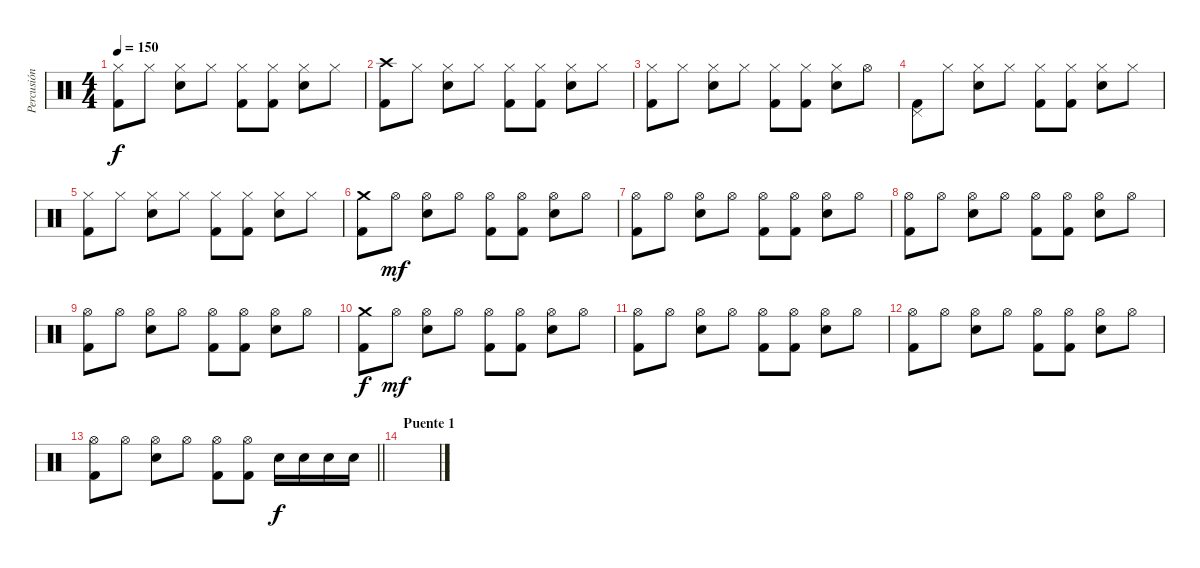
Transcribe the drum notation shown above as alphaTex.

\track ("Percusión" "Percusión") {instrument percussion}
\staff {score}
\articulation defaults
\ts (4 4)
\tempo 150
\clef neutral
\ks c
("Hi-Hat (closed)" "Kick (hit) 2").8{dy f} "Hi-Hat (closed)".8 ("Hi-Hat (closed)" "Electric Snare (hit)").8 "Hi-Hat (closed)".8 ("Hi-Hat (closed)" "Kick (hit) 2").8 ("Hi-Hat (closed)" "Kick (hit) 2").8 ("Hi-Hat (closed)" "Electric Snare (hit)").8 "Hi-Hat (closed)".8 |
("Crash high (hit)" "Kick (hit) 2").8 "Hi-Hat (closed)".8 ("Hi-Hat (closed)" "Electric Snare (hit)").8 "Hi-Hat (closed)".8 ("Hi-Hat (closed)" "Kick (hit) 2").8 ("Hi-Hat (closed)" "Kick (hit) 2").8 ("Hi-Hat (closed)" "Electric Snare (hit)").8 "Hi-Hat (closed)".8 |
("Hi-Hat (closed)" "Kick (hit) 2").8 "Hi-Hat (closed)".8 ("Hi-Hat (closed)" "Electric Snare (hit)").8 "Hi-Hat (closed)".8 ("Hi-Hat (closed)" "Kick (hit) 2").8 ("Hi-Hat (closed)" "Kick (hit) 2").8 ("Hi-Hat (closed)" "Electric Snare (hit)").8 "Hi-Hat (open)".8 |
("Pedal Hi-Hat (hit)" "Kick (hit) 2").8 "Hi-Hat (closed)".8 ("Hi-Hat (closed)" "Electric Snare (hit)").8 "Hi-Hat (closed)".8 ("Hi-Hat (closed)" "Kick (hit) 2").8 ("Hi-Hat (closed)" "Kick (hit) 2").8 ("Hi-Hat (closed)" "Electric Snare (hit)").8 "Hi-Hat (closed)".8 |
("Hi-Hat (closed)" "Kick (hit) 2").8 "Hi-Hat (closed)".8 ("Hi-Hat (closed)" "Electric Snare (hit)").8 "Hi-Hat (closed)".8 ("Hi-Hat (closed)" "Kick (hit) 2").8 ("Hi-Hat (closed)" "Kick (hit) 2").8 ("Hi-Hat (closed)" "Electric Snare (hit)").8 "Hi-Hat (closed)".8 |
("Crash medium (hit)" "Kick (hit) 2").8 "Hi-Hat (open)".8{dy mf} ("Hi-Hat (open)" "Electric Snare (hit)").8 "Hi-Hat (open)".8 ("Hi-Hat (open)" "Kick (hit) 2").8 ("Hi-Hat (open)" "Kick (hit) 2").8 ("Hi-Hat (open)" "Electric Snare (hit)").8 "Hi-Hat (open)".8 |
("Hi-Hat (open)" "Kick (hit) 2").8 "Hi-Hat (open)".8 ("Hi-Hat (open)" "Electric Snare (hit)").8 "Hi-Hat (open)".8 ("Hi-Hat (open)" "Kick (hit) 2").8 ("Hi-Hat (open)" "Kick (hit) 2").8 ("Hi-Hat (open)" "Electric Snare (hit)").8 "Hi-Hat (open)".8 |
("Hi-Hat (open)" "Kick (hit) 2").8 "Hi-Hat (open)".8 ("Hi-Hat (open)" "Electric Snare (hit)").8 "Hi-Hat (open)".8 ("Hi-Hat (open)" "Kick (hit) 2").8 ("Hi-Hat (open)" "Kick (hit) 2").8 ("Hi-Hat (open)" "Electric Snare (hit)").8 "Hi-Hat (open)".8 |
("Hi-Hat (open)" "Kick (hit) 2").8 "Hi-Hat (open)".8 ("Hi-Hat (open)" "Electric Snare (hit)").8 "Hi-Hat (open)".8 ("Hi-Hat (open)" "Kick (hit) 2").8 ("Hi-Hat (open)" "Kick (hit) 2").8 ("Hi-Hat (open)" "Electric Snare (hit)").8 "Hi-Hat (open)".8 |
("Crash medium (hit)" "Kick (hit) 2").8{dy f} "Hi-Hat (open)".8{dy mf} ("Hi-Hat (open)" "Electric Snare (hit)").8 "Hi-Hat (open)".8 ("Hi-Hat (open)" "Kick (hit) 2").8 ("Hi-Hat (open)" "Kick (hit) 2").8 ("Hi-Hat (open)" "Electric Snare (hit)").8 "Hi-Hat (open)".8 |
("Hi-Hat (open)" "Kick (hit) 2").8 "Hi-Hat (open)".8 ("Hi-Hat (open)" "Electric Snare (hit)").8 "Hi-Hat (open)".8 ("Hi-Hat (open)" "Kick (hit) 2").8 ("Hi-Hat (open)" "Kick (hit) 2").8 ("Hi-Hat (open)" "Electric Snare (hit)").8 "Hi-Hat (open)".8 |
("Hi-Hat (open)" "Kick (hit) 2").8 "Hi-Hat (open)".8 ("Hi-Hat (open)" "Electric Snare (hit)").8 "Hi-Hat (open)".8 ("Hi-Hat (open)" "Kick (hit) 2").8 ("Hi-Hat (open)" "Kick (hit) 2").8 ("Hi-Hat (open)" "Electric Snare (hit)").8 "Hi-Hat (open)".8 |
\barLineRight lightlight
("Hi-Hat (open)" "Kick (hit) 2").8 "Hi-Hat (open)".8 ("Hi-Hat (open)" "Electric Snare (hit)").8 "Hi-Hat (open)".8 ("Hi-Hat (open)" "Kick (hit) 2").8 ("Hi-Hat (open)" "Kick (hit) 2").8 "Electric Snare (hit)".16{dy f} "Electric Snare (hit)".16 "Electric Snare (hit)".16 "Electric Snare (hit)".16 |
\section ("" "Puente 1")
